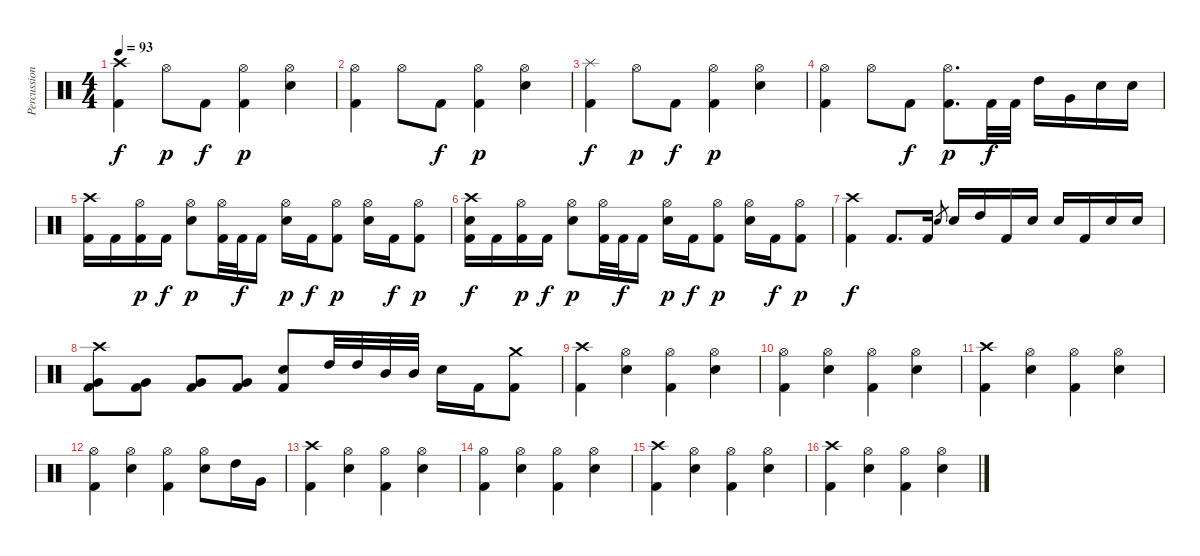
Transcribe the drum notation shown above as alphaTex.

\track ("Percussions" "Percussion") {instrument percussion}
\staff {score}
\articulation defaults
\ts (4 4)
\tempo 93
\clef neutral
\ks c
("Crash high (hit)" "Kick (hit) 2").4{dy f} "Hi-Hat (open)".8{dy p} "Kick (hit) 2".8{dy f} ("Hi-Hat (open)" "Kick (hit) 2").4{dy p} ("Hi-Hat (open)" "Electric Snare (hit)").4 |
("Hi-Hat (open)" "Kick (hit) 2").4 "Hi-Hat (open)".8 "Kick (hit) 2".8{dy f} ("Hi-Hat (open)" "Kick (hit) 2").4{dy p} ("Hi-Hat (open)" "Electric Snare (hit)").4 |
("Splash (hit)" "Kick (hit) 2").4{dy f} "Hi-Hat (open)".8{dy p} "Kick (hit) 2".8{dy f} ("Hi-Hat (open)" "Kick (hit) 2").4{dy p} ("Hi-Hat (open)" "Electric Snare (hit)").4 |
("Hi-Hat (open)" "Kick (hit) 2").4 "Hi-Hat (open)".8 "Kick (hit) 2".8{dy f} ("Hi-Hat (open)" "Kick (hit) 2").8{d dy p} "Kick (hit) 2".32{dy f} "Kick (hit) 2".32 "High Tom (hit)".16 "Very Low Tom (hit)".16 "Electric Snare (hit)".16 "Electric Snare (hit)".16 |
("Crash high (hit)" "Kick (hit) 2").16 "Kick (hit) 2".16 ("Hi-Hat (open)" "Kick (hit) 2").16{dy p} "Kick (hit) 2".16{dy f} ("Hi-Hat (open)" "Electric Snare (hit)").8{dy p} ("Hi-Hat (open)" "Kick (hit) 2").32 "Kick (hit) 2".32{dy f} "Kick (hit) 2".16 ("Hi-Hat (open)" "Electric Snare (hit)").16{dy p} "Kick (hit) 2".16{dy f} ("Hi-Hat (open)" "Kick (hit) 2").8{dy p} ("Hi-Hat (open)" "Electric Snare (hit)").16 "Kick (hit) 2".16{dy f} ("Hi-Hat (open)" "Kick (hit) 2").8{dy p} |
("Crash high (hit)" "Electric Snare (hit)" "Kick (hit) 2").16{dy f} "Kick (hit) 2".16 ("Hi-Hat (open)" "Kick (hit) 2").16{dy p} "Kick (hit) 2".16{dy f} ("Hi-Hat (open)" "Electric Snare (hit)").8{dy p} ("Hi-Hat (open)" "Kick (hit) 2").32 "Kick (hit) 2".32{dy f} "Kick (hit) 2".16 ("Hi-Hat (open)" "Electric Snare (hit)").16{dy p} "Kick (hit) 2".16{dy f} ("Hi-Hat (open)" "Kick (hit) 2").8{dy p} ("Hi-Hat (open)" "Electric Snare (hit)").16 "Kick (hit) 2".16{dy f} ("Hi-Hat (open)" "Kick (hit) 2").8{dy p} |
("Crash high (hit)" "Kick (hit) 2").4{dy f} "Kick (hit) 2".8{d} "Kick (hit) 2".16 "Electric Snare (hit)".8{gr} "Electric Snare (hit)".16 "High Tom (hit)".16 "Kick (hit) 2".16 "Electric Snare (hit)".16 "Electric Snare (hit)".16 "Kick (hit) 2".16 "Electric Snare (hit)".16 "Electric Snare (hit)".16 |
("Crash high (hit)" "Very Low Tom (hit)" "Kick (hit) 2").8 ("Very Low Tom (hit)" "Kick (hit) 2").8 ("Very Low Tom (hit)" "Kick (hit) 2").8 ("Very Low Tom (hit)" "Kick (hit) 2").8 ("Electric Snare (hit)" "Kick (hit) 2").8 "High Tom (hit)".32 "High Tom (hit)".32 "Mid Tom (hit)".32 "Mid Tom (hit)".32 "Electric Snare (hit)".16 "Kick (hit) 2".16 ("Crash medium (hit)" "Kick (hit) 2").8 |
("Crash high (hit)" "Kick (hit) 2").4 ("Hi-Hat (open)" "Electric Snare (hit)").4 ("Hi-Hat (open)" "Kick (hit) 2").4 ("Hi-Hat (open)" "Electric Snare (hit)").4 |
("Hi-Hat (open)" "Kick (hit) 2").4 ("Hi-Hat (open)" "Electric Snare (hit)").4 ("Hi-Hat (open)" "Kick (hit) 2").4 ("Hi-Hat (open)" "Electric Snare (hit)").4 |
("Crash high (hit)" "Kick (hit) 2").4 ("Hi-Hat (open)" "Electric Snare (hit)").4 ("Hi-Hat (open)" "Kick (hit) 2").4 ("Hi-Hat (open)" "Electric Snare (hit)").4 |
("Hi-Hat (open)" "Kick (hit) 2").4 ("Hi-Hat (open)" "Electric Snare (hit)").4 ("Hi-Hat (open)" "Kick (hit) 2").4 ("Hi-Hat (open)" "Electric Snare (hit)").8 "High Tom (hit)".16 "Very Low Tom (hit)".16 |
("Crash high (hit)" "Kick (hit) 2").4 ("Hi-Hat (open)" "Electric Snare (hit)").4 ("Hi-Hat (open)" "Kick (hit) 2").4 ("Hi-Hat (open)" "Electric Snare (hit)").4 |
("Hi-Hat (open)" "Kick (hit) 2").4 ("Hi-Hat (open)" "Electric Snare (hit)").4 ("Hi-Hat (open)" "Kick (hit) 2").4 ("Hi-Hat (open)" "Electric Snare (hit)").4 |
("Crash high (hit)" "Kick (hit) 2").4 ("Hi-Hat (open)" "Electric Snare (hit)").4 ("Hi-Hat (open)" "Kick (hit) 2").4 ("Hi-Hat (open)" "Electric Snare (hit)").4 |
("Crash high (hit)" "Kick (hit) 2").4 ("Hi-Hat (open)" "Electric Snare (hit)").4 ("Hi-Hat (open)" "Kick (hit) 2").4 ("Hi-Hat (open)" "Electric Snare (hit)").4
